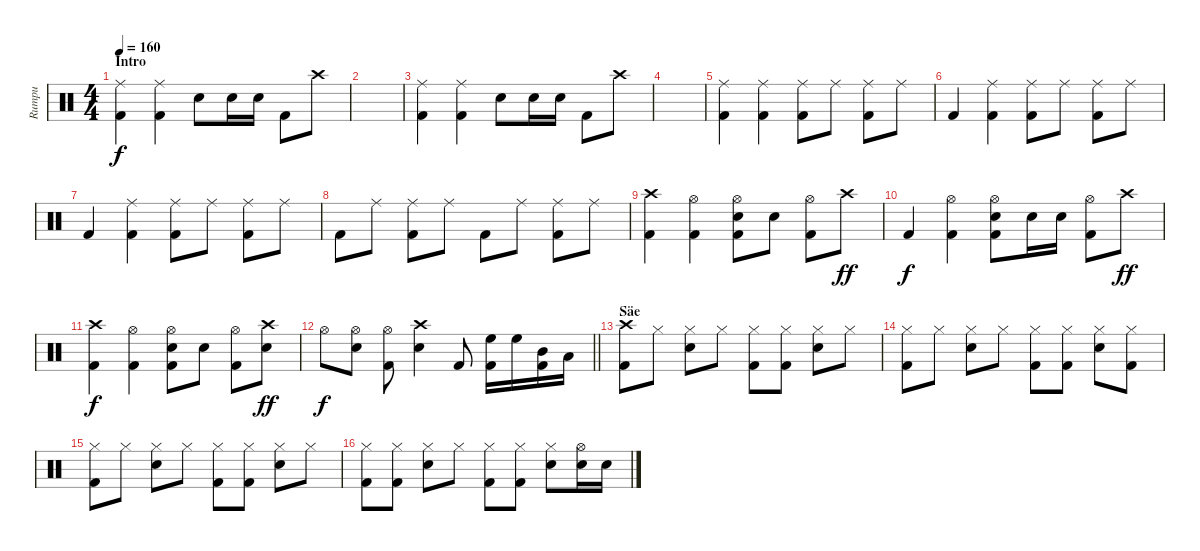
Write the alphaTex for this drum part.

\track ("Rumpu" "Rumpu") {instrument percussion}
\staff {score}
\articulation defaults
\ts (4 4)
\section ("" "Intro")
\tempo 160
\clef neutral
\ks c
("Ride (middle)" "Kick (hit) 2").4{dy f} ("Ride (middle)" "Kick (hit) 2").4 "Snare (hit) 2".8 "Snare (hit) 2".16 "Snare (hit) 2".16 "Kick (hit) 2".8 "Crash high (hit)".8 |
|
("Ride (middle)" "Kick (hit) 2").4 ("Ride (middle)" "Kick (hit) 2").4 "Snare (hit) 2".8 "Snare (hit) 2".16 "Snare (hit) 2".16 "Kick (hit) 2".8 "Crash high (hit)".8 |
|
("Ride (middle)" "Kick (hit) 2").4 ("Ride (middle)" "Kick (hit) 2").4 ("Ride (middle)" "Kick (hit) 2").8 "Ride (middle)".8 ("Ride (middle)" "Kick (hit) 2").8 "Ride (middle)".8 |
"Kick (hit) 2".4 ("Ride (middle)" "Kick (hit) 2").4 ("Ride (middle)" "Kick (hit) 2").8 "Ride (middle)".8 ("Ride (middle)" "Kick (hit) 2").8 "Ride (middle)".8 |
"Kick (hit) 2".4 ("Ride (middle)" "Kick (hit) 2").4 ("Ride (middle)" "Kick (hit) 2").8 "Ride (middle)".8 ("Ride (middle)" "Kick (hit) 2").8 "Ride (middle)".8 |
"Kick (hit) 2".8 "Ride (middle)".8 ("Ride (middle)" "Kick (hit) 2").8 "Ride (middle)".8 "Kick (hit) 2".8 "Ride (middle)".8 ("Ride (middle)" "Kick (hit) 2").8 "Ride (middle)".8 |
("Crash high (hit)" "Kick (hit) 2").4 ("Hi-Hat (open)" "Kick (hit) 2").4 ("Hi-Hat (open)" "Snare (hit) 2" "Kick (hit) 2").8 "Snare (hit) 2".8 ("Hi-Hat (open)" "Kick (hit) 2").8 "Crash high (hit)".8{dy ff} |
"Kick (hit) 2".4{dy f} ("Hi-Hat (open)" "Kick (hit) 2").4 ("Hi-Hat (open)" "Snare (hit) 2" "Kick (hit) 2").8 "Snare (hit) 2".16 "Snare (hit) 2".16 ("Hi-Hat (open)" "Kick (hit) 2").8 "Crash high (hit)".8{dy ff} |
("Crash high (hit)" "Kick (hit) 2").4{dy f} ("Hi-Hat (open)" "Kick (hit) 2").4 ("Hi-Hat (open)" "Snare (hit) 2" "Kick (hit) 2").8 "Snare (hit) 2".8 ("Hi-Hat (open)" "Kick (hit) 2").8 ("Crash high (hit)" "Snare (hit) 2").8{dy ff} |
\barLineRight lightlight "Hi-Hat (open)".8{dy f}
("Hi-Hat (open)" "Snare (hit) 2").8 ("Hi-Hat (open)" "Kick (hit) 2").8 ("Crash high (hit)" "Snare (hit) 2").4 "Kick (hit) 2".8 ("High Floor Tom (hit)" "Kick (hit) 2").16 "High Floor Tom (hit)".16 ("Mid Tom (hit)" "Kick (hit) 2").16 "Low Tom (hit)".16 |
\section ("" "Säe")
("Crash high (hit)" "Kick (hit) 2").8 "Hi-Hat (closed)".8 ("Hi-Hat (closed)" "Snare (hit) 2").8 "Hi-Hat (closed)".8 ("Hi-Hat (closed)" "Kick (hit) 2").8 ("Hi-Hat (closed)" "Kick (hit) 2").8 ("Hi-Hat (closed)" "Snare (hit) 2").8 "Hi-Hat (closed)".8 |
("Hi-Hat (closed)" "Kick (hit) 2").8 "Hi-Hat (closed)".8 ("Hi-Hat (closed)" "Snare (hit) 2").8 "Hi-Hat (closed)".8 ("Hi-Hat (closed)" "Kick (hit) 2").8 ("Hi-Hat (closed)" "Kick (hit) 2").8 ("Hi-Hat (closed)" "Snare (hit) 2").8 ("Hi-Hat (closed)" "Kick (hit) 2").8 |
("Hi-Hat (closed)" "Kick (hit) 2").8 "Hi-Hat (closed)".8 ("Hi-Hat (closed)" "Snare (hit) 2").8 "Hi-Hat (closed)".8 ("Hi-Hat (closed)" "Kick (hit) 2").8 ("Hi-Hat (closed)" "Kick (hit) 2").8 ("Hi-Hat (closed)" "Snare (hit) 2").8 "Hi-Hat (closed)".8 |
("Hi-Hat (closed)" "Kick (hit) 2").8 ("Hi-Hat (closed)" "Kick (hit) 2").8 ("Hi-Hat (closed)" "Snare (hit) 2").8 "Hi-Hat (closed)".8 ("Hi-Hat (closed)" "Kick (hit) 2").8 ("Hi-Hat (closed)" "Kick (hit) 2").8 ("Hi-Hat (closed)" "Snare (hit) 2").8 ("Hi-Hat (open)" "Snare (hit) 2").16 "Snare (hit) 2".16
